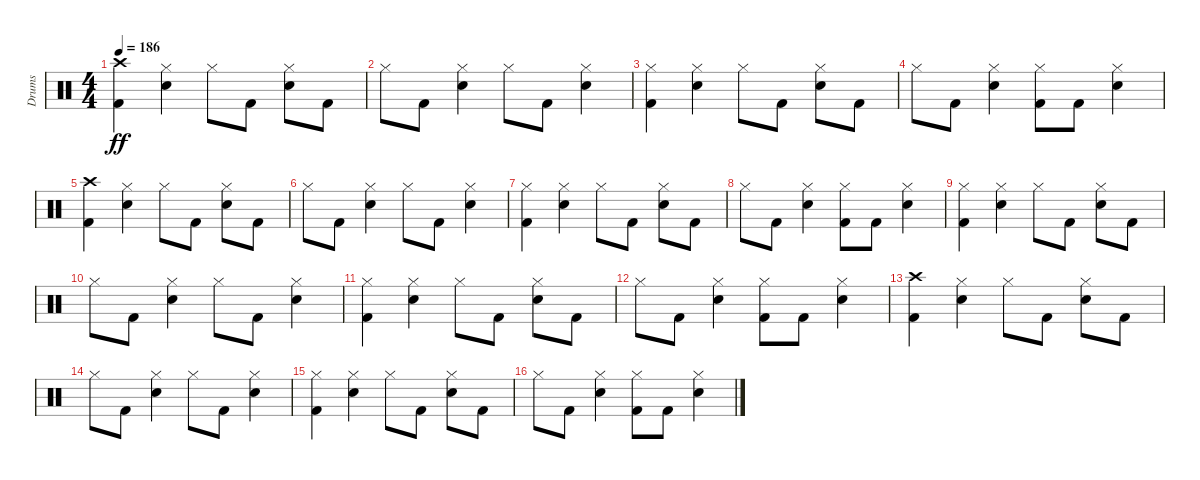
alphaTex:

\track ("Drums" "Drums") {instrument percussion}
\staff {score}
\articulation defaults
\ts (4 4)
\tempo 186
\clef neutral
\ks c
("Kick (hit) 2" "Crash high (hit)").4{dy ff} ("Snare (hit) 2" "Hi-Hat (closed)").4 "Hi-Hat (closed)".8 "Kick (hit) 2".8 ("Snare (hit) 2" "Hi-Hat (closed)").8 "Kick (hit) 2".8 |
"Hi-Hat (closed)".8 "Kick (hit) 2".8 ("Snare (hit) 2" "Hi-Hat (closed)").4 "Hi-Hat (closed)".8 "Kick (hit) 2".8 ("Snare (hit) 2" "Hi-Hat (closed)").4 |
("Kick (hit) 2" "Hi-Hat (closed)").4 ("Snare (hit) 2" "Hi-Hat (closed)").4 "Hi-Hat (closed)".8 "Kick (hit) 2".8 ("Snare (hit) 2" "Hi-Hat (closed)").8 "Kick (hit) 2".8 |
"Hi-Hat (closed)".8 "Kick (hit) 2".8 ("Snare (hit) 2" "Hi-Hat (closed)").4 ("Kick (hit) 2" "Hi-Hat (closed)").8 "Kick (hit) 2".8 ("Snare (hit) 2" "Hi-Hat (closed)").4 |
("Kick (hit) 2" "Crash high (hit)").4 ("Snare (hit) 2" "Hi-Hat (closed)").4 "Hi-Hat (closed)".8 "Kick (hit) 2".8 ("Snare (hit) 2" "Hi-Hat (closed)").8 "Kick (hit) 2".8 |
"Hi-Hat (closed)".8 "Kick (hit) 2".8 ("Snare (hit) 2" "Hi-Hat (closed)").4 "Hi-Hat (closed)".8 "Kick (hit) 2".8 ("Snare (hit) 2" "Hi-Hat (closed)").4 |
("Kick (hit) 2" "Hi-Hat (closed)").4 ("Snare (hit) 2" "Hi-Hat (closed)").4 "Hi-Hat (closed)".8 "Kick (hit) 2".8 ("Snare (hit) 2" "Hi-Hat (closed)").8 "Kick (hit) 2".8 |
"Hi-Hat (closed)".8 "Kick (hit) 2".8 ("Snare (hit) 2" "Hi-Hat (closed)").4 ("Kick (hit) 2" "Hi-Hat (closed)").8 "Kick (hit) 2".8 ("Snare (hit) 2" "Hi-Hat (closed)").4 |
("Kick (hit) 2" "Hi-Hat (closed)").4 ("Snare (hit) 2" "Hi-Hat (closed)").4 "Hi-Hat (closed)".8 "Kick (hit) 2".8 ("Snare (hit) 2" "Hi-Hat (closed)").8 "Kick (hit) 2".8 |
"Hi-Hat (closed)".8 "Kick (hit) 2".8 ("Snare (hit) 2" "Hi-Hat (closed)").4 "Hi-Hat (closed)".8 "Kick (hit) 2".8 ("Snare (hit) 2" "Hi-Hat (closed)").4 |
("Kick (hit) 2" "Hi-Hat (closed)").4 ("Snare (hit) 2" "Hi-Hat (closed)").4 "Hi-Hat (closed)".8 "Kick (hit) 2".8 ("Snare (hit) 2" "Hi-Hat (closed)").8 "Kick (hit) 2".8 |
"Hi-Hat (closed)".8 "Kick (hit) 2".8 ("Snare (hit) 2" "Hi-Hat (closed)").4 ("Kick (hit) 2" "Hi-Hat (closed)").8 "Kick (hit) 2".8 ("Snare (hit) 2" "Hi-Hat (closed)").4 |
("Kick (hit) 2" "Crash high (hit)").4 ("Snare (hit) 2" "Hi-Hat (closed)").4 "Hi-Hat (closed)".8 "Kick (hit) 2".8 ("Snare (hit) 2" "Hi-Hat (closed)").8 "Kick (hit) 2".8 |
"Hi-Hat (closed)".8 "Kick (hit) 2".8 ("Snare (hit) 2" "Hi-Hat (closed)").4 "Hi-Hat (closed)".8 "Kick (hit) 2".8 ("Snare (hit) 2" "Hi-Hat (closed)").4 |
("Kick (hit) 2" "Hi-Hat (closed)").4 ("Snare (hit) 2" "Hi-Hat (closed)").4 "Hi-Hat (closed)".8 "Kick (hit) 2".8 ("Snare (hit) 2" "Hi-Hat (closed)").8 "Kick (hit) 2".8 |
"Hi-Hat (closed)".8 "Kick (hit) 2".8 ("Snare (hit) 2" "Hi-Hat (closed)").4 ("Kick (hit) 2" "Hi-Hat (closed)").8 "Kick (hit) 2".8 ("Snare (hit) 2" "Hi-Hat (closed)").4
